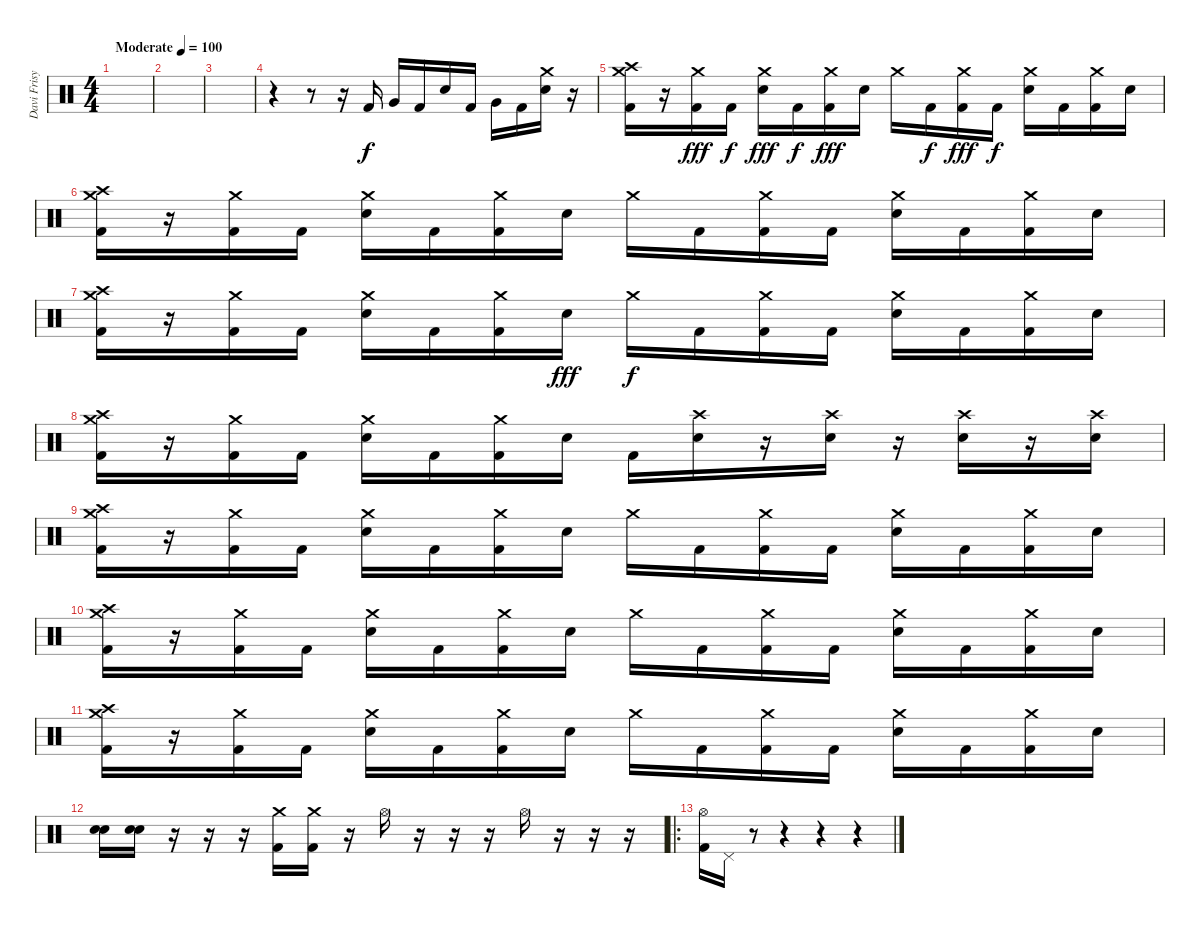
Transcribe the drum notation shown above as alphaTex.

\track ("Davi Frisya" "Davi Frisy") {instrument percussion}
\staff {score}
\articulation defaults
\ts (4 4)
\tempo (100 "Moderate")
\clef neutral
\ks c
|
|
|
r.4 r.8 r.16 "Kick (hit) 2".16 "Very Low Tom (hit)".16 "Kick (hit) 2".16 "Electric Snare (hit)".16 "Kick (hit) 2".16 "Very Low Tom (hit)".16 "Kick (hit) 2".16 ("Crash medium (hit)" "Electric Snare (hit)").16 r.16 |
("Crash medium (hit)" "Crash high (hit)" "Kick (hit) 2").16 r.16 ("Crash medium (hit)" "Kick (hit) 2").16{dy fff} "Kick (hit) 2".16{dy f} ("Crash medium (hit)" "Electric Snare (hit)").16{dy fff} "Kick (hit) 2".16{dy f} ("Crash medium (hit)" "Kick (hit) 2").16{dy fff} "Electric Snare (hit)".16 "Crash medium (hit)".16 "Kick (hit) 2".16{dy f} ("Crash medium (hit)" "Kick (hit) 2").16{dy fff} "Kick (hit) 2".16{dy f} ("Crash medium (hit)" "Electric Snare (hit)").16 "Kick (hit) 2".16 ("Crash medium (hit)" "Kick (hit) 2").16 "Electric Snare (hit)".16 |
("Crash medium (hit)" "Crash high (hit)" "Kick (hit) 2").16 r.16 ("Crash medium (hit)" "Kick (hit) 2").16 "Kick (hit) 2".16 ("Crash medium (hit)" "Electric Snare (hit)").16 "Kick (hit) 2".16 ("Crash medium (hit)" "Kick (hit) 2").16 "Electric Snare (hit)".16 "Crash medium (hit)".16 "Kick (hit) 2".16 ("Crash medium (hit)" "Kick (hit) 2").16 "Kick (hit) 2".16 ("Crash medium (hit)" "Electric Snare (hit)").16 "Kick (hit) 2".16 ("Crash medium (hit)" "Kick (hit) 2").16 "Electric Snare (hit)".16 |
("Crash medium (hit)" "Crash high (hit)" "Kick (hit) 2").16 r.16 ("Crash medium (hit)" "Kick (hit) 2").16 "Kick (hit) 2".16 ("Crash medium (hit)" "Electric Snare (hit)").16 "Kick (hit) 2".16 ("Crash medium (hit)" "Kick (hit) 2").16 "Electric Snare (hit)".16{dy fff} "Crash medium (hit)".16{dy f} "Kick (hit) 2".16 ("Crash medium (hit)" "Kick (hit) 2").16 "Kick (hit) 2".16 ("Crash medium (hit)" "Electric Snare (hit)").16 "Kick (hit) 2".16 ("Crash medium (hit)" "Kick (hit) 2").16 "Electric Snare (hit)".16 |
("Crash medium (hit)" "Crash high (hit)" "Kick (hit) 2").16 r.16 ("Crash medium (hit)" "Kick (hit) 2").16 "Kick (hit) 2".16 ("Crash medium (hit)" "Electric Snare (hit)").16 "Kick (hit) 2".16 ("Crash medium (hit)" "Kick (hit) 2").16 "Electric Snare (hit)".16 "Kick (hit) 2".16 ("Crash high (hit)" "Electric Snare (hit)").16 r.16 ("Crash high (hit)" "Electric Snare (hit)").16 r.16 ("Crash high (hit)" "Electric Snare (hit)").16 r.16 ("Crash high (hit)" "Electric Snare (hit)").16 |
("Crash medium (hit)" "Crash high (hit)" "Kick (hit) 2").16 r.16 ("Crash medium (hit)" "Kick (hit) 2").16 "Kick (hit) 2".16 ("Crash medium (hit)" "Electric Snare (hit)").16 "Kick (hit) 2".16 ("Crash medium (hit)" "Kick (hit) 2").16 "Electric Snare (hit)".16 "Crash medium (hit)".16 "Kick (hit) 2".16 ("Crash medium (hit)" "Kick (hit) 2").16 "Kick (hit) 2".16 ("Crash medium (hit)" "Electric Snare (hit)").16 "Kick (hit) 2".16 ("Crash medium (hit)" "Kick (hit) 2").16 "Electric Snare (hit)".16 |
("Crash medium (hit)" "Crash high (hit)" "Kick (hit) 2").16 r.16 ("Crash medium (hit)" "Kick (hit) 2").16 "Kick (hit) 2".16 ("Crash medium (hit)" "Electric Snare (hit)").16 "Kick (hit) 2".16 ("Crash medium (hit)" "Kick (hit) 2").16 "Electric Snare (hit)".16 "Crash medium (hit)".16 "Kick (hit) 2".16 ("Crash medium (hit)" "Kick (hit) 2").16 "Kick (hit) 2".16 ("Crash medium (hit)" "Electric Snare (hit)").16 "Kick (hit) 2".16 ("Crash medium (hit)" "Kick (hit) 2").16 "Electric Snare (hit)".16 |
("Crash medium (hit)" "Crash high (hit)" "Kick (hit) 2").16 r.16 ("Crash medium (hit)" "Kick (hit) 2").16 "Kick (hit) 2".16 ("Crash medium (hit)" "Electric Snare (hit)").16 "Kick (hit) 2".16 ("Crash medium (hit)" "Kick (hit) 2").16 "Electric Snare (hit)".16 "Crash medium (hit)".16 "Kick (hit) 2".16 ("Crash medium (hit)" "Kick (hit) 2").16 "Kick (hit) 2".16 ("Crash medium (hit)" "Electric Snare (hit)").16 "Kick (hit) 2".16 ("Crash medium (hit)" "Kick (hit) 2").16 "Electric Snare (hit)".16 |
("Electric Snare (hit)" "Electric Snare (hit)").16 ("Electric Snare (hit)" "Electric Snare (hit)").16 r.16 r.16 r.16 ("Crash medium (hit)" "Kick (hit) 2").16 ("Crash medium (hit)" "Kick (hit) 2").16 r.16 "Hi-Hat (open)".16 r.16 r.16 r.16 "Hi-Hat (open)".16 r.16 r.16 r.16 |
\ro
("Hi-Hat (open)" "Kick (hit) 2").16 "Pedal Hi-Hat (hit)".16 r.8 r.4 r.4 r.4
